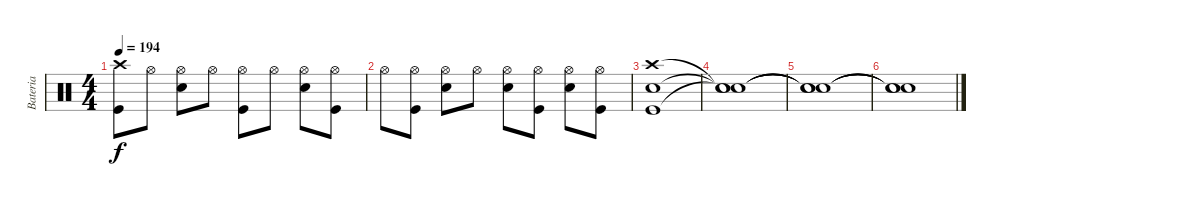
\track ("Bateria" "Bateria") {instrument percussion}
\staff {score}
\articulation defaults
\ts (4 4)
\tempo 194
\clef neutral
\ks c
("Crash high (hit)" "Kick (hit)").8{dy f} "Hi-Hat (open)".8 ("Electric Snare (hit)" "Hi-Hat (open)").8 "Hi-Hat (open)".8 ("Hi-Hat (open)" "Kick (hit)").8 "Hi-Hat (open)".8 ("Electric Snare (hit)" "Hi-Hat (open)").8 ("Hi-Hat (open)" "Kick (hit)").8 |
"Hi-Hat (open)".8 ("Hi-Hat (open)" "Kick (hit)").8 ("Electric Snare (hit)" "Hi-Hat (open)").8 "Hi-Hat (open)".8 ("Electric Snare (hit)" "Hi-Hat (open)").8 ("Hi-Hat (open)" "Kick (hit)").8 ("Electric Snare (hit)" "Hi-Hat (open)").8 ("Hi-Hat (open)" "Kick (hit)").8 |
("Crash high (hit)" "Electric Snare (hit)" "Kick (hit)").1 |
("Snare (hit)"{t} "Snare (hit)"{t} "Snare (hit)"{t}).1 |
("Snare (hit)"{t} "Snare (hit)"{t} "Snare (hit)"{t}).1 |
("Snare (hit)"{t} "Snare (hit)"{t} "Snare (hit)"{t}).1
